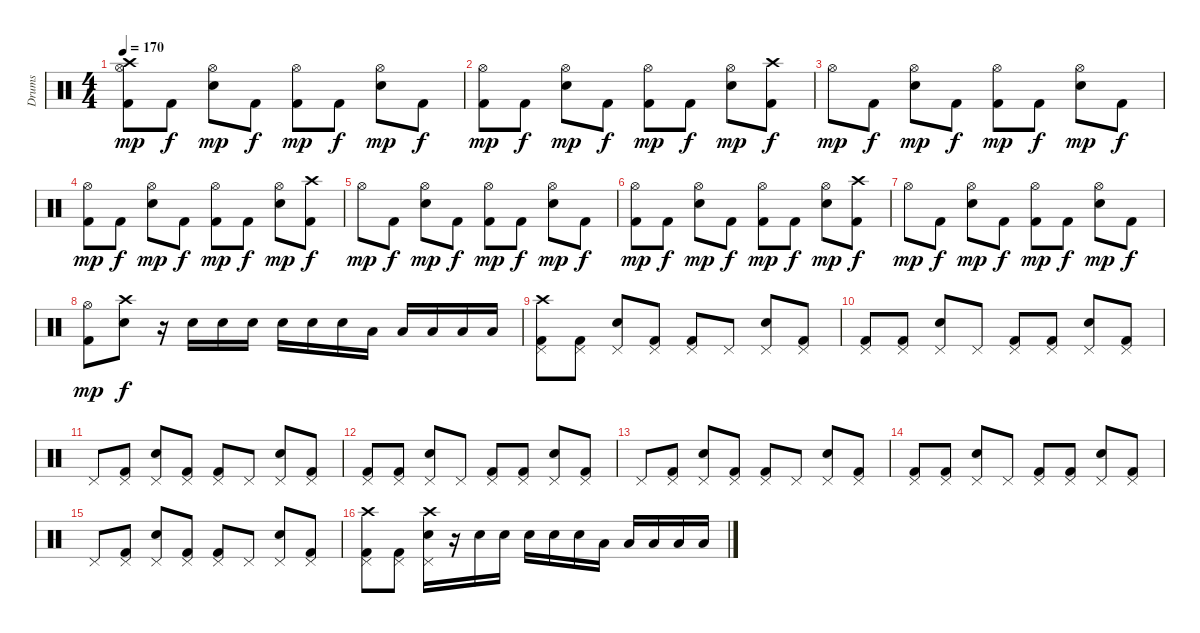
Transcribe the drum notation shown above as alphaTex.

\track ("Drums" "Drums") {instrument percussion}
\staff {score}
\articulation defaults
\ts (4 4)
\tempo 170
\clef neutral
\ks c
("Hi-Hat (open)" "Crash high (hit)" "Kick (hit) 2").8{dy mp} "Kick (hit) 2".8{dy f} ("Hi-Hat (open)" "Electric Snare (hit)").8{dy mp} "Kick (hit) 2".8{dy f} ("Hi-Hat (open)" "Kick (hit) 2").8{dy mp} "Kick (hit) 2".8{dy f} ("Hi-Hat (open)" "Electric Snare (hit)").8{dy mp} "Kick (hit) 2".8{dy f} |
("Hi-Hat (open)" "Kick (hit) 2").8{dy mp} "Kick (hit) 2".8{dy f} ("Hi-Hat (open)" "Electric Snare (hit)").8{dy mp} "Kick (hit) 2".8{dy f} ("Hi-Hat (open)" "Kick (hit) 2").8{dy mp} "Kick (hit) 2".8{dy f} ("Hi-Hat (open)" "Electric Snare (hit)").8{dy mp} ("Crash high (hit)" "Kick (hit) 2").8{dy f} |
"Hi-Hat (open)".8{dy mp} "Kick (hit) 2".8{dy f} ("Hi-Hat (open)" "Electric Snare (hit)").8{dy mp} "Kick (hit) 2".8{dy f} ("Hi-Hat (open)" "Kick (hit) 2").8{dy mp} "Kick (hit) 2".8{dy f} ("Hi-Hat (open)" "Electric Snare (hit)").8{dy mp} "Kick (hit) 2".8{dy f} |
("Hi-Hat (open)" "Kick (hit) 2").8{dy mp} "Kick (hit) 2".8{dy f} ("Hi-Hat (open)" "Electric Snare (hit)").8{dy mp} "Kick (hit) 2".8{dy f} ("Hi-Hat (open)" "Kick (hit) 2").8{dy mp} "Kick (hit) 2".8{dy f} ("Hi-Hat (open)" "Electric Snare (hit)").8{dy mp} ("Crash high (hit)" "Kick (hit) 2").8{dy f} |
"Hi-Hat (open)".8{dy mp} "Kick (hit) 2".8{dy f} ("Hi-Hat (open)" "Electric Snare (hit)").8{dy mp} "Kick (hit) 2".8{dy f} ("Hi-Hat (open)" "Kick (hit) 2").8{dy mp} "Kick (hit) 2".8{dy f} ("Hi-Hat (open)" "Electric Snare (hit)").8{dy mp} "Kick (hit) 2".8{dy f} |
("Hi-Hat (open)" "Kick (hit) 2").8{dy mp} "Kick (hit) 2".8{dy f} ("Hi-Hat (open)" "Electric Snare (hit)").8{dy mp} "Kick (hit) 2".8{dy f} ("Hi-Hat (open)" "Kick (hit) 2").8{dy mp} "Kick (hit) 2".8{dy f} ("Hi-Hat (open)" "Electric Snare (hit)").8{dy mp} ("Crash high (hit)" "Kick (hit) 2").8{dy f} |
"Hi-Hat (open)".8{dy mp} "Kick (hit) 2".8{dy f} ("Hi-Hat (open)" "Electric Snare (hit)").8{dy mp} "Kick (hit) 2".8{dy f} ("Hi-Hat (open)" "Kick (hit) 2").8{dy mp} "Kick (hit) 2".8{dy f} ("Hi-Hat (open)" "Electric Snare (hit)").8{dy mp} "Kick (hit) 2".8{dy f} |
("Hi-Hat (open)" "Kick (hit) 2").8{dy mp} ("Crash high (hit)" "Electric Snare (hit)").8{dy f} r.16 "Electric Snare (hit)".16 "Electric Snare (hit)".16 "Electric Snare (hit)".16 "Electric Snare (hit)".16 "Electric Snare (hit)".16 "Electric Snare (hit)".16 "Low Floor Tom (hit)".16 "Low Floor Tom (hit)".16 "Low Floor Tom (hit)".16 "Low Floor Tom (hit)".16 "Low Floor Tom (hit)".16 |
("Crash high (hit)" "Pedal Hi-Hat (hit)" "Kick (hit) 2").8 ("Pedal Hi-Hat (hit)" "Kick (hit) 2").8 ("Pedal Hi-Hat (hit)" "Snare (hit) 2").8 ("Pedal Hi-Hat (hit)" "Kick (hit) 2").8 ("Pedal Hi-Hat (hit)" "Kick (hit) 2").8 "Pedal Hi-Hat (hit)".8 ("Pedal Hi-Hat (hit)" "Snare (hit) 2").8 ("Pedal Hi-Hat (hit)" "Kick (hit) 2").8 |
("Pedal Hi-Hat (hit)" "Kick (hit) 2").8 ("Pedal Hi-Hat (hit)" "Kick (hit) 2").8 ("Pedal Hi-Hat (hit)" "Snare (hit) 2").8 "Pedal Hi-Hat (hit)".8 ("Pedal Hi-Hat (hit)" "Kick (hit) 2").8 ("Pedal Hi-Hat (hit)" "Kick (hit) 2").8 ("Pedal Hi-Hat (hit)" "Snare (hit) 2").8 ("Pedal Hi-Hat (hit)" "Kick (hit) 2").8 |
"Pedal Hi-Hat (hit)".8 ("Pedal Hi-Hat (hit)" "Kick (hit) 2").8 ("Pedal Hi-Hat (hit)" "Snare (hit) 2").8 ("Pedal Hi-Hat (hit)" "Kick (hit) 2").8 ("Pedal Hi-Hat (hit)" "Kick (hit) 2").8 "Pedal Hi-Hat (hit)".8 ("Pedal Hi-Hat (hit)" "Snare (hit) 2").8 ("Pedal Hi-Hat (hit)" "Kick (hit) 2").8 |
("Pedal Hi-Hat (hit)" "Kick (hit) 2").8 ("Pedal Hi-Hat (hit)" "Kick (hit) 2").8 ("Pedal Hi-Hat (hit)" "Snare (hit) 2").8 "Pedal Hi-Hat (hit)".8 ("Pedal Hi-Hat (hit)" "Kick (hit) 2").8 ("Pedal Hi-Hat (hit)" "Kick (hit) 2").8 ("Pedal Hi-Hat (hit)" "Snare (hit) 2").8 ("Pedal Hi-Hat (hit)" "Kick (hit) 2").8 |
"Pedal Hi-Hat (hit)".8 ("Pedal Hi-Hat (hit)" "Kick (hit) 2").8 ("Pedal Hi-Hat (hit)" "Snare (hit) 2").8 ("Pedal Hi-Hat (hit)" "Kick (hit) 2").8 ("Pedal Hi-Hat (hit)" "Kick (hit) 2").8 "Pedal Hi-Hat (hit)".8 ("Pedal Hi-Hat (hit)" "Snare (hit) 2").8 ("Pedal Hi-Hat (hit)" "Kick (hit) 2").8 |
("Pedal Hi-Hat (hit)" "Kick (hit) 2").8 ("Pedal Hi-Hat (hit)" "Kick (hit) 2").8 ("Pedal Hi-Hat (hit)" "Snare (hit) 2").8 "Pedal Hi-Hat (hit)".8 ("Pedal Hi-Hat (hit)" "Kick (hit) 2").8 ("Pedal Hi-Hat (hit)" "Kick (hit) 2").8 ("Pedal Hi-Hat (hit)" "Snare (hit) 2").8 ("Pedal Hi-Hat (hit)" "Kick (hit) 2").8 |
"Pedal Hi-Hat (hit)".8 ("Pedal Hi-Hat (hit)" "Kick (hit) 2").8 ("Pedal Hi-Hat (hit)" "Snare (hit) 2").8 ("Pedal Hi-Hat (hit)" "Kick (hit) 2").8 ("Pedal Hi-Hat (hit)" "Kick (hit) 2").8 "Pedal Hi-Hat (hit)".8 ("Pedal Hi-Hat (hit)" "Snare (hit) 2").8 ("Pedal Hi-Hat (hit)" "Kick (hit) 2").8 |
("Crash high (hit)" "Pedal Hi-Hat (hit)" "Kick (hit) 2").8 ("Pedal Hi-Hat (hit)" "Kick (hit) 2").8 ("Crash high (hit)" "Pedal Hi-Hat (hit)" "Snare (hit) 2").16 r.16 "Snare (hit) 2".16 "Snare (hit) 2".16 "Snare (hit) 2".16 "Snare (hit) 2".16 "Snare (hit) 2".16 "Low Floor Tom (hit)".16 "Low Floor Tom (hit)".16 "Low Floor Tom (hit)".16 "Low Floor Tom (hit)".16 "Low Floor Tom (hit)".16
